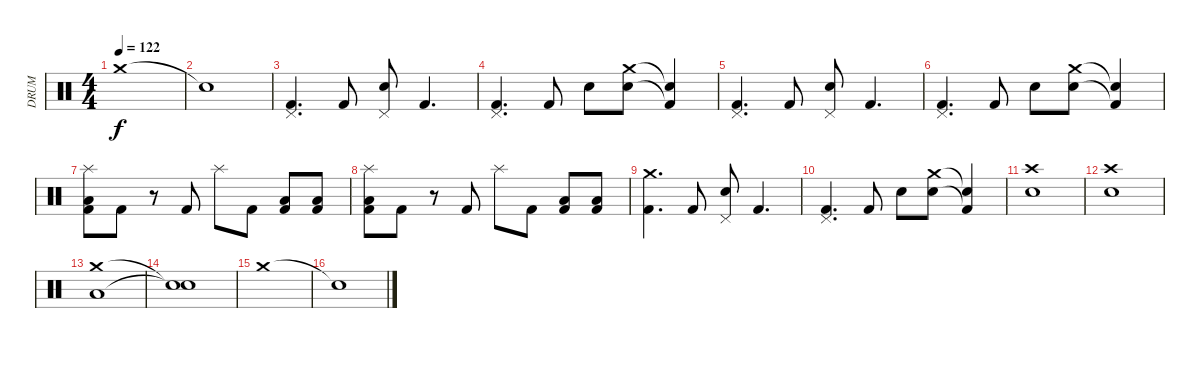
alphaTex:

\track ("DRUM" "DRUM") {instrument percussion}
\staff {score}
\articulation defaults
\ts (4 4)
\tempo 122
\clef neutral
\ks c "Crash medium (hit)".1{dy f}
|
"Snare (hit)"{t}.1 |
("Kick (hit) 2" "Pedal Hi-Hat (hit)").4{d} "Kick (hit) 2".8 ("Snare (hit) 2" "Pedal Hi-Hat (hit)").8 "Kick (hit) 2".4{d} |
("Kick (hit) 2" "Pedal Hi-Hat (hit)").4{d} "Kick (hit) 2".8 "Electric Snare (hit)".8 ("Electric Snare (hit)" "Crash medium (hit)").8 ("Kick (hit) 2"{t} "Snare (hit)"{t}).4 |
("Kick (hit) 2" "Pedal Hi-Hat (hit)").4{d} "Kick (hit) 2".8 ("Snare (hit) 2" "Pedal Hi-Hat (hit)").8 "Kick (hit) 2".4{d} |
("Kick (hit) 2" "Pedal Hi-Hat (hit)").4{d} "Kick (hit) 2".8 "Electric Snare (hit)".8 ("Electric Snare (hit)" "Crash medium (hit)").8 ("Kick (hit) 2"{t} "Snare (hit)"{t}).4 |
("Kick (hit) 2" "Low Floor Tom (hit)" "Splash (hit)").8 "Kick (hit) 2".8 r.8 "Kick (hit) 2".8 "Splash (hit)".8 "Kick (hit) 2".8 ("Kick (hit) 2" "Low Floor Tom (hit)").8 ("Kick (hit) 2" "Low Floor Tom (hit)").8 |
("Kick (hit) 2" "Low Floor Tom (hit)" "Splash (hit)").8 "Kick (hit) 2".8 r.8 "Kick (hit) 2".8 "Splash (hit)".8 "Kick (hit) 2".8 ("Kick (hit) 2" "Low Floor Tom (hit)").8 ("Kick (hit) 2" "Low Floor Tom (hit)").8 |
("Kick (hit) 2" "Crash medium (hit)").4{d} "Kick (hit) 2".8 ("Snare (hit) 2" "Pedal Hi-Hat (hit)").8 "Kick (hit) 2".4{d} |
("Kick (hit) 2" "Pedal Hi-Hat (hit)").4{d} "Kick (hit) 2".8 "Electric Snare (hit)".8 ("Electric Snare (hit)" "Crash medium (hit)").8 ("Kick (hit) 2"{t} "Snare (hit)"{t}).4 |
("Crash high (hit)" "Snare (hit) 2").1 |
("Crash high (hit)" "Electric Snare (hit)").1 |
("Crash medium (hit)" "Low Floor Tom (hit)").1 |
("Snare (hit)"{t} "Snare (hit)"{t}).1 |
"Crash medium (hit)".1 |
"Snare (hit)"{t}.1
